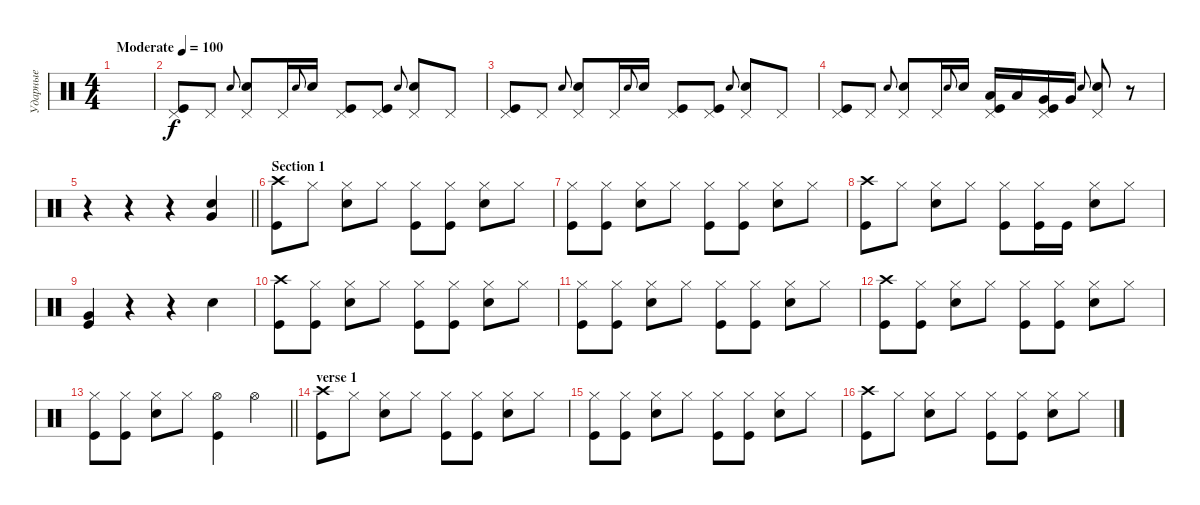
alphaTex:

\track ("Ударные" "Ударные") {instrument percussion}
\staff {score}
\articulation defaults
\ts (4 4)
\tempo (100 "Moderate")
\clef neutral
\ks c
|
("Pedal Hi-Hat (hit)" "Kick (hit)").8 "Pedal Hi-Hat (hit)".8 "Electric Snare (hit)".8{gr onbeat} ("Pedal Hi-Hat (hit)" "Electric Snare (hit)").8 "Pedal Hi-Hat (hit)".16 "Electric Snare (hit)".8{gr onbeat} "Electric Snare (hit)".16 ("Pedal Hi-Hat (hit)" "Kick (hit)").8 ("Pedal Hi-Hat (hit)" "Kick (hit)").8 "Electric Snare (hit)".8{gr onbeat} ("Pedal Hi-Hat (hit)" "Electric Snare (hit)").8 "Pedal Hi-Hat (hit)".8 |
("Pedal Hi-Hat (hit)" "Kick (hit)").8 "Pedal Hi-Hat (hit)".8 "Electric Snare (hit)".8{gr onbeat} ("Pedal Hi-Hat (hit)" "Electric Snare (hit)").8 "Pedal Hi-Hat (hit)".16 "Electric Snare (hit)".8{gr onbeat} "Electric Snare (hit)".16 ("Pedal Hi-Hat (hit)" "Kick (hit)").8 ("Pedal Hi-Hat (hit)" "Kick (hit)").8 "Electric Snare (hit)".8{gr onbeat} ("Pedal Hi-Hat (hit)" "Electric Snare (hit)").8 "Pedal Hi-Hat (hit)".8 |
("Pedal Hi-Hat (hit)" "Kick (hit)").8 "Pedal Hi-Hat (hit)".8 "Electric Snare (hit)".8{gr onbeat} ("Pedal Hi-Hat (hit)" "Electric Snare (hit)").8 "Pedal Hi-Hat (hit)".16 "Electric Snare (hit)".8{gr onbeat} "Electric Snare (hit)".16 ("Pedal Hi-Hat (hit)" "Low Tom (hit)" "Kick (hit)").16 "Low Tom (hit)".16 ("Pedal Hi-Hat (hit)" "Very Low Tom (hit)" "Kick (hit)").16 "Very Low Tom (hit)".16 "Electric Snare (hit)".8{gr onbeat} ("Pedal Hi-Hat (hit)" "Electric Snare (hit)").8 r.8 |
\barLineRight lightlight
r.4 r.4 r.4 ("Electric Snare (hit)" "Very Low Tom (hit)").4 |
\section ("" "Section 1")
("Crash high (hit)" "Kick (hit)").8 "Hi-Hat (closed)".8 ("Hi-Hat (closed)" "Electric Snare (hit)").8 "Hi-Hat (closed)".8 ("Hi-Hat (closed)" "Kick (hit)").8 ("Hi-Hat (closed)" "Kick (hit)").8 ("Hi-Hat (closed)" "Electric Snare (hit)").8 "Hi-Hat (closed)".8 |
("Hi-Hat (closed)" "Kick (hit)").8 ("Hi-Hat (closed)" "Kick (hit)").8 ("Hi-Hat (closed)" "Electric Snare (hit)").8 "Hi-Hat (closed)".8 ("Hi-Hat (closed)" "Kick (hit)").8 ("Hi-Hat (closed)" "Kick (hit)").8 ("Hi-Hat (closed)" "Electric Snare (hit)").8 "Hi-Hat (closed)".8 |
("Crash high (hit)" "Kick (hit)").8 "Hi-Hat (closed)".8 ("Hi-Hat (closed)" "Electric Snare (hit)").8 "Hi-Hat (closed)".8 ("Hi-Hat (closed)" "Kick (hit)").8 ("Hi-Hat (closed)" "Kick (hit)").16 "Kick (hit)".16 ("Hi-Hat (closed)" "Electric Snare (hit)").8 "Hi-Hat (closed)".8 |
("Very Low Tom (hit)" "Kick (hit)").4 r.4 r.4 "Electric Snare (hit)".4 |
("Crash high (hit)" "Kick (hit)").8 ("Hi-Hat (closed)" "Kick (hit)").8 ("Hi-Hat (closed)" "Electric Snare (hit)").8 "Hi-Hat (closed)".8 ("Hi-Hat (closed)" "Kick (hit)").8 ("Hi-Hat (closed)" "Kick (hit)").8 ("Hi-Hat (closed)" "Electric Snare (hit)").8 "Hi-Hat (closed)".8 |
("Hi-Hat (closed)" "Kick (hit)").8 ("Hi-Hat (closed)" "Kick (hit)").8 ("Hi-Hat (closed)" "Electric Snare (hit)").8 "Hi-Hat (closed)".8 ("Hi-Hat (closed)" "Kick (hit)").8 ("Hi-Hat (closed)" "Kick (hit)").8 ("Hi-Hat (closed)" "Electric Snare (hit)").8 "Hi-Hat (closed)".8 |
("Crash high (hit)" "Kick (hit)").8 ("Hi-Hat (closed)" "Kick (hit)").8 ("Hi-Hat (closed)" "Electric Snare (hit)").8 "Hi-Hat (closed)".8 ("Hi-Hat (closed)" "Kick (hit)").8 ("Hi-Hat (closed)" "Kick (hit)").8 ("Hi-Hat (closed)" "Electric Snare (hit)").8 "Hi-Hat (closed)".8 |
\barLineRight lightlight
("Hi-Hat (closed)" "Kick (hit)").8 ("Hi-Hat (closed)" "Kick (hit)").8 ("Hi-Hat (closed)" "Electric Snare (hit)").8 "Hi-Hat (closed)".8 ("Hi-Hat (open)" "Kick (hit)").4 "Hi-Hat (open)".4 |
\section ("" "verse 1")
("Crash high (hit)" "Kick (hit)").8 "Hi-Hat (closed)".8 ("Hi-Hat (closed)" "Electric Snare (hit)").8 "Hi-Hat (closed)".8 ("Hi-Hat (closed)" "Kick (hit)").8 ("Hi-Hat (closed)" "Kick (hit)").8 ("Hi-Hat (closed)" "Electric Snare (hit)").8 "Hi-Hat (closed)".8 |
("Hi-Hat (closed)" "Kick (hit)").8 ("Hi-Hat (closed)" "Kick (hit)").8 ("Hi-Hat (closed)" "Electric Snare (hit)").8 "Hi-Hat (closed)".8 ("Hi-Hat (closed)" "Kick (hit)").8 ("Hi-Hat (closed)" "Kick (hit)").8 ("Hi-Hat (closed)" "Electric Snare (hit)").8 "Hi-Hat (closed)".8 |
("Crash high (hit)" "Kick (hit)").8 "Hi-Hat (closed)".8 ("Hi-Hat (closed)" "Electric Snare (hit)").8 "Hi-Hat (closed)".8 ("Hi-Hat (closed)" "Kick (hit)").8 ("Hi-Hat (closed)" "Kick (hit)").8 ("Hi-Hat (closed)" "Electric Snare (hit)").8 "Hi-Hat (closed)".8
